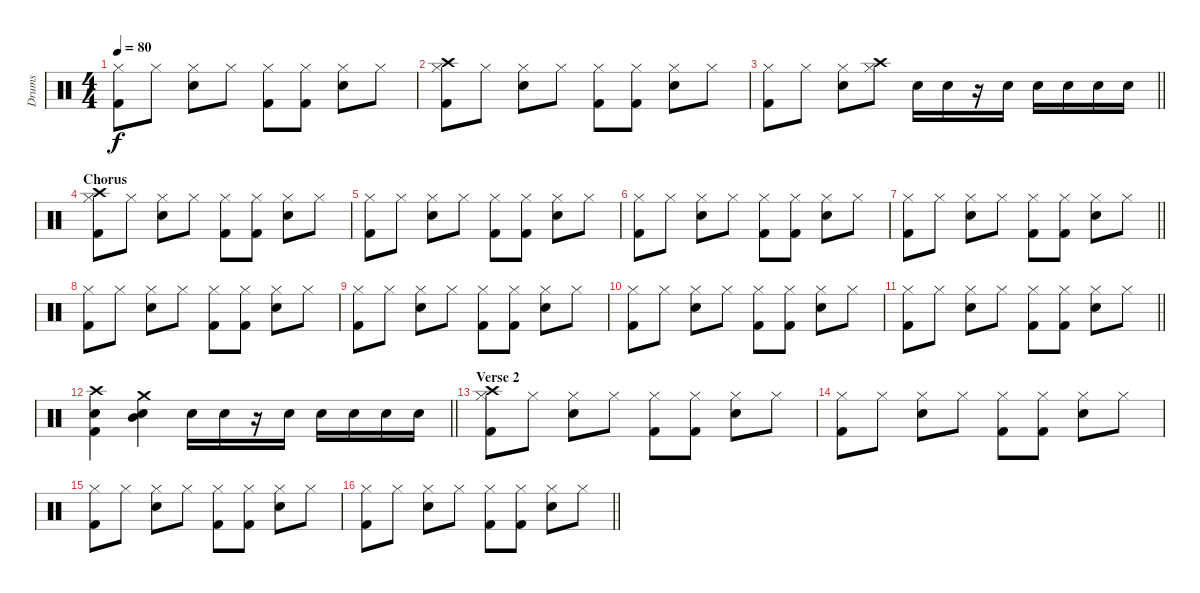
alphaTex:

\track ("Drums" "Drums") {instrument percussion}
\staff {score}
\articulation defaults
\ts (4 4)
\tempo 80
\clef neutral
\ks c
("Hi-Hat (closed)" "Kick (hit) 2").8{dy f} "Hi-Hat (closed)".8 ("Hi-Hat (closed)" "Snare (hit) 2").8 "Hi-Hat (closed)".8 ("Hi-Hat (closed)" "Kick (hit) 2").8 ("Hi-Hat (closed)" "Kick (hit) 2").8 ("Hi-Hat (closed)" "Snare (hit) 2").8 "Hi-Hat (closed)".8 |
("Hi-Hat (closed)" "Crash high (hit)" "Kick (hit) 2").8 "Hi-Hat (closed)".8 ("Hi-Hat (closed)" "Snare (hit) 2").8 "Hi-Hat (closed)".8 ("Hi-Hat (closed)" "Kick (hit) 2").8 ("Hi-Hat (closed)" "Kick (hit) 2").8 ("Hi-Hat (closed)" "Snare (hit) 2").8 "Hi-Hat (closed)".8 |
\barLineRight lightlight
("Hi-Hat (closed)" "Kick (hit) 2").8 "Hi-Hat (closed)".8 ("Hi-Hat (closed)" "Snare (hit) 2").8 ("Hi-Hat (closed)" "Crash high (hit)").8 "Snare (hit) 2".16 "Snare (hit) 2".16 r.16 "Snare (hit) 2".16 "Snare (hit) 2".16 "Snare (hit) 2".16 "Snare (hit) 2".16 "Snare (hit) 2".16 |
\section ("" "Chorus")
("Hi-Hat (closed)" "Crash high (hit)" "Kick (hit) 2").8 "Hi-Hat (closed)".8 ("Hi-Hat (closed)" "Snare (hit) 2").8 "Hi-Hat (closed)".8 ("Hi-Hat (closed)" "Kick (hit) 2").8 ("Hi-Hat (closed)" "Kick (hit) 2").8 ("Hi-Hat (closed)" "Snare (hit) 2").8 "Hi-Hat (closed)".8 |
("Hi-Hat (closed)" "Kick (hit) 2").8 "Hi-Hat (closed)".8 ("Hi-Hat (closed)" "Snare (hit) 2").8 "Hi-Hat (closed)".8 ("Hi-Hat (closed)" "Kick (hit) 2").8 ("Hi-Hat (closed)" "Kick (hit) 2").8 ("Hi-Hat (closed)" "Snare (hit) 2").8 "Hi-Hat (closed)".8 |
("Hi-Hat (closed)" "Kick (hit) 2").8 "Hi-Hat (closed)".8 ("Hi-Hat (closed)" "Snare (hit) 2").8 "Hi-Hat (closed)".8 ("Hi-Hat (closed)" "Kick (hit) 2").8 ("Hi-Hat (closed)" "Kick (hit) 2").8 ("Hi-Hat (closed)" "Snare (hit) 2").8 "Hi-Hat (closed)".8 |
\barLineRight lightlight
("Hi-Hat (closed)" "Kick (hit) 2").8 "Hi-Hat (closed)".8 ("Hi-Hat (closed)" "Snare (hit) 2").8 "Hi-Hat (closed)".8 ("Hi-Hat (closed)" "Kick (hit) 2").8 ("Hi-Hat (closed)" "Kick (hit) 2").8 ("Hi-Hat (closed)" "Snare (hit) 2").8 "Hi-Hat (closed)".8 |
("Hi-Hat (closed)" "Kick (hit) 2").8 "Hi-Hat (closed)".8 ("Hi-Hat (closed)" "Snare (hit) 2").8 "Hi-Hat (closed)".8 ("Hi-Hat (closed)" "Kick (hit) 2").8 ("Hi-Hat (closed)" "Kick (hit) 2").8 ("Hi-Hat (closed)" "Snare (hit) 2").8 "Hi-Hat (closed)".8 |
("Hi-Hat (closed)" "Kick (hit) 2").8 "Hi-Hat (closed)".8 ("Hi-Hat (closed)" "Snare (hit) 2").8 "Hi-Hat (closed)".8 ("Hi-Hat (closed)" "Kick (hit) 2").8 ("Hi-Hat (closed)" "Kick (hit) 2").8 ("Hi-Hat (closed)" "Snare (hit) 2").8 "Hi-Hat (closed)".8 |
("Hi-Hat (closed)" "Kick (hit) 2").8 "Hi-Hat (closed)".8 ("Hi-Hat (closed)" "Snare (hit) 2").8 "Hi-Hat (closed)".8 ("Hi-Hat (closed)" "Kick (hit) 2").8 ("Hi-Hat (closed)" "Kick (hit) 2").8 ("Hi-Hat (closed)" "Snare (hit) 2").8 "Hi-Hat (closed)".8 |
\barLineRight lightlight
("Hi-Hat (closed)" "Kick (hit) 2").8 "Hi-Hat (closed)".8 ("Hi-Hat (closed)" "Snare (hit) 2").8 "Hi-Hat (closed)".8 ("Hi-Hat (closed)" "Kick (hit) 2").8 ("Hi-Hat (closed)" "Kick (hit) 2").8 ("Hi-Hat (closed)" "Snare (hit) 2").8 "Hi-Hat (closed)".8 |
\barLineRight lightlight
("Crash high (hit)" "Kick (hit) 2" "Snare (hit) 2").4 ("Crash medium (hit)" "Snare (hit) 2" "Mid Tom (hit)").4 "Snare (hit) 2".16 "Snare (hit) 2".16 r.16 "Snare (hit) 2".16 "Snare (hit) 2".16 "Snare (hit) 2".16 "Snare (hit) 2".16 "Snare (hit) 2".16 |
\section ("" "Verse 2")
("Hi-Hat (closed)" "Crash high (hit)" "Kick (hit) 2").8 "Hi-Hat (closed)".8 ("Hi-Hat (closed)" "Snare (hit) 2").8 "Hi-Hat (closed)".8 ("Hi-Hat (closed)" "Kick (hit) 2").8 ("Hi-Hat (closed)" "Kick (hit) 2").8 ("Hi-Hat (closed)" "Snare (hit) 2").8 "Hi-Hat (closed)".8 |
("Hi-Hat (closed)" "Kick (hit) 2").8 "Hi-Hat (closed)".8 ("Hi-Hat (closed)" "Snare (hit) 2").8 "Hi-Hat (closed)".8 ("Hi-Hat (closed)" "Kick (hit) 2").8 ("Hi-Hat (closed)" "Kick (hit) 2").8 ("Hi-Hat (closed)" "Snare (hit) 2").8 "Hi-Hat (closed)".8 |
("Hi-Hat (closed)" "Kick (hit) 2").8 "Hi-Hat (closed)".8 ("Hi-Hat (closed)" "Snare (hit) 2").8 "Hi-Hat (closed)".8 ("Hi-Hat (closed)" "Kick (hit) 2").8 ("Hi-Hat (closed)" "Kick (hit) 2").8 ("Hi-Hat (closed)" "Snare (hit) 2").8 "Hi-Hat (closed)".8 |
\barLineRight lightlight
("Hi-Hat (closed)" "Kick (hit) 2").8 "Hi-Hat (closed)".8 ("Hi-Hat (closed)" "Snare (hit) 2").8 "Hi-Hat (closed)".8 ("Hi-Hat (closed)" "Kick (hit) 2").8 ("Hi-Hat (closed)" "Kick (hit) 2").8 ("Hi-Hat (closed)" "Snare (hit) 2").8 "Hi-Hat (closed)".8
